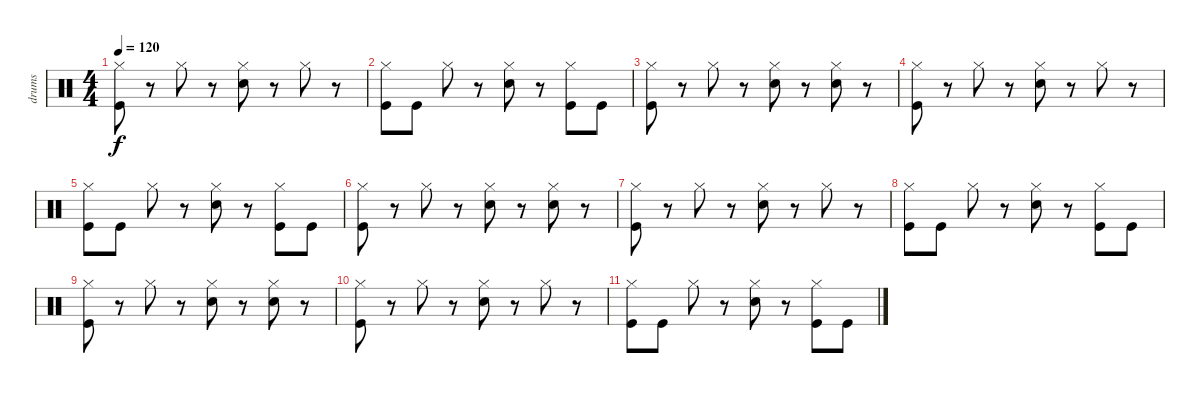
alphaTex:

\track ("drums" "drums") {instrument percussion}
\staff {score}
\articulation defaults
\ts (4 4)
\tempo 120
\clef neutral
\ks c
("Hi-Hat (closed)" "Kick (hit)").8{dy f} r.8 "Hi-Hat (closed)".8 r.8 ("Hi-Hat (closed)" "Electric Snare (hit)").8 r.8 "Hi-Hat (closed)".8 r.8 |
("Hi-Hat (closed)" "Kick (hit)").8 "Kick (hit)".8 "Hi-Hat (closed)".8 r.8 ("Hi-Hat (closed)" "Electric Snare (hit)").8 r.8 ("Hi-Hat (closed)" "Kick (hit)").8 "Kick (hit)".8 |
("Hi-Hat (closed)" "Kick (hit)").8 r.8 "Hi-Hat (closed)".8 r.8 ("Hi-Hat (closed)" "Electric Snare (hit)").8 r.8 ("Hi-Hat (closed)" "Electric Snare (hit)").8 r.8 |
("Hi-Hat (closed)" "Kick (hit)").8 r.8 "Hi-Hat (closed)".8 r.8 ("Hi-Hat (closed)" "Electric Snare (hit)").8 r.8 "Hi-Hat (closed)".8 r.8 |
("Hi-Hat (closed)" "Kick (hit)").8 "Kick (hit)".8 "Hi-Hat (closed)".8 r.8 ("Hi-Hat (closed)" "Electric Snare (hit)").8 r.8 ("Hi-Hat (closed)" "Kick (hit)").8 "Kick (hit)".8 |
("Hi-Hat (closed)" "Kick (hit)").8 r.8 "Hi-Hat (closed)".8 r.8 ("Hi-Hat (closed)" "Electric Snare (hit)").8 r.8 ("Hi-Hat (closed)" "Electric Snare (hit)").8 r.8 |
("Hi-Hat (closed)" "Kick (hit)").8 r.8 "Hi-Hat (closed)".8 r.8 ("Hi-Hat (closed)" "Electric Snare (hit)").8 r.8 "Hi-Hat (closed)".8 r.8 |
("Hi-Hat (closed)" "Kick (hit)").8 "Kick (hit)".8 "Hi-Hat (closed)".8 r.8 ("Hi-Hat (closed)" "Electric Snare (hit)").8 r.8 ("Hi-Hat (closed)" "Kick (hit)").8 "Kick (hit)".8 |
("Hi-Hat (closed)" "Kick (hit)").8 r.8 "Hi-Hat (closed)".8 r.8 ("Hi-Hat (closed)" "Electric Snare (hit)").8 r.8 ("Hi-Hat (closed)" "Electric Snare (hit)").8 r.8 |
("Hi-Hat (closed)" "Kick (hit)").8 r.8 "Hi-Hat (closed)".8 r.8 ("Hi-Hat (closed)" "Electric Snare (hit)").8 r.8 "Hi-Hat (closed)".8 r.8 |
("Hi-Hat (closed)" "Kick (hit)").8 "Kick (hit)".8 "Hi-Hat (closed)".8 r.8 ("Hi-Hat (closed)" "Electric Snare (hit)").8 r.8 ("Hi-Hat (closed)" "Kick (hit)").8 "Kick (hit)".8
